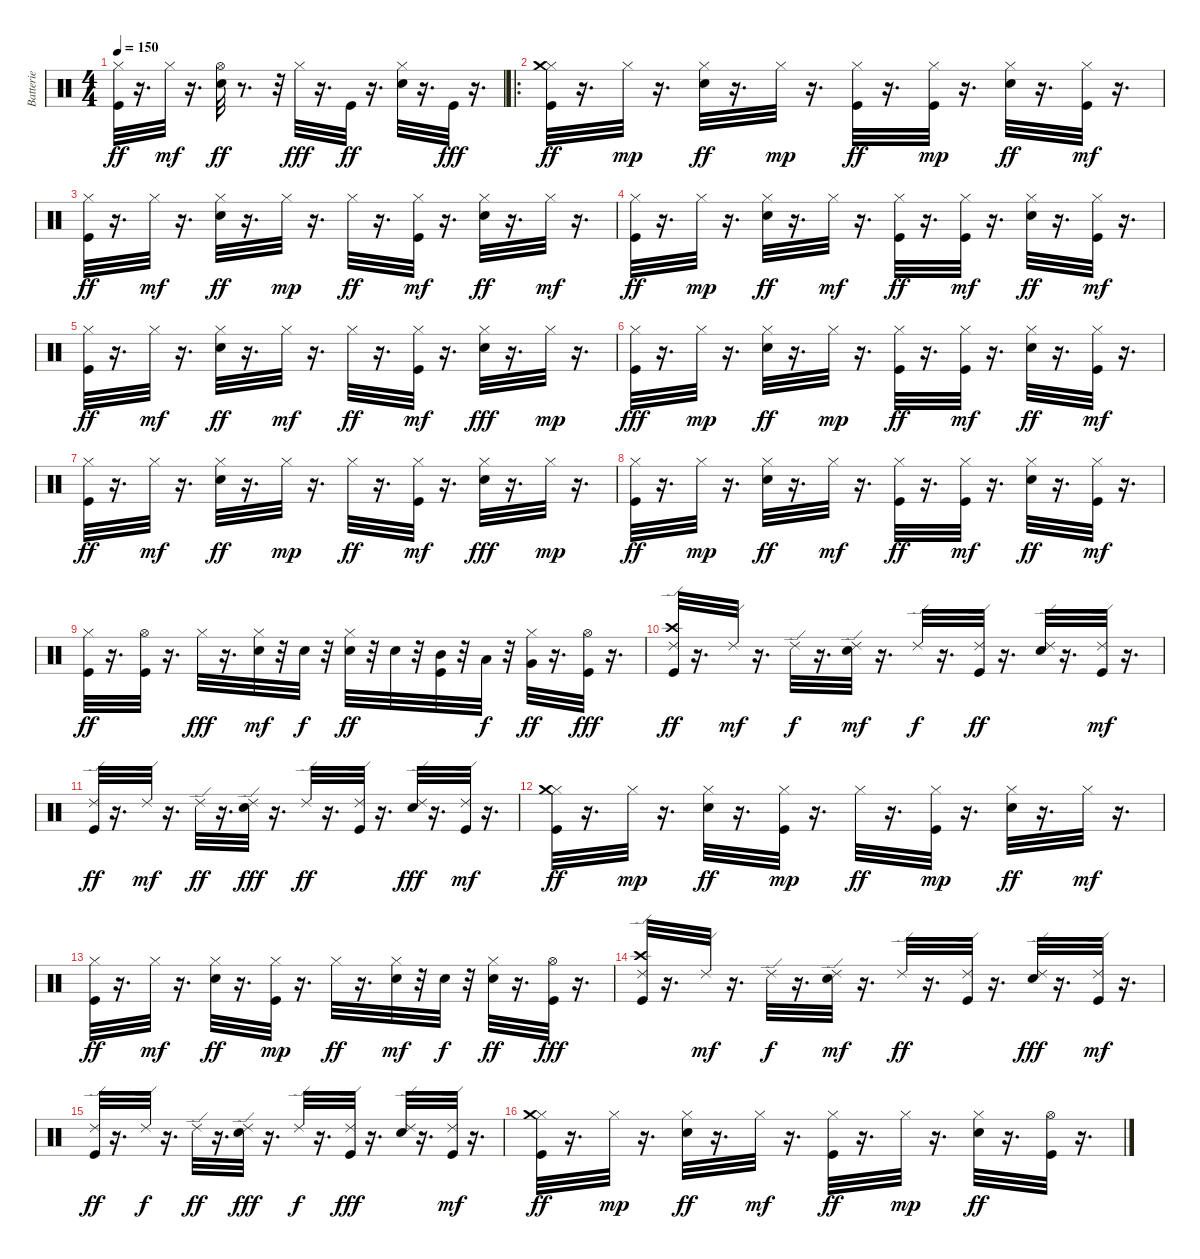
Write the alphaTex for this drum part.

\track ("Batterie" "Batterie") {instrument percussion}
\staff {score}
\articulation defaults
\ts (4 4)
\tempo 150
\clef neutral
\ks c
("Kick (hit)" "Hi-Hat (closed)").32{dy ff} r.16{d} "Hi-Hat (closed)".32{dy mf} r.16{d} ("Snare (hit) 2" "Hi-Hat (open)").32{dy ff} r.8{d} r.32 "Hi-Hat (closed)".32{dy fff} r.16{d} "Kick (hit)".32{dy ff} r.16{d} ("Snare (hit) 2" "Hi-Hat (closed)").32 r.16{d} "Kick (hit)".32{dy fff} r.16{d} |
\ro
("Kick (hit)" "Hi-Hat (closed)" "Crash medium (hit)").32{dy ff} r.16{d} "Hi-Hat (closed)".32{dy mp} r.16{d} ("Snare (hit) 2" "Hi-Hat (closed)").32{dy ff} r.16{d} "Hi-Hat (closed)".32{dy mp} r.16{d} ("Kick (hit)" "Hi-Hat (closed)").32{dy ff} r.16{d} ("Kick (hit)" "Hi-Hat (closed)").32{dy mp} r.16{d} ("Snare (hit) 2" "Hi-Hat (closed)").32{dy ff} r.16{d} ("Kick (hit)" "Hi-Hat (closed)").32{dy mf} r.16{d} |
("Kick (hit)" "Hi-Hat (closed)").32{dy ff} r.16{d} "Hi-Hat (closed)".32{dy mf} r.16{d} ("Snare (hit) 2" "Hi-Hat (closed)").32{dy ff} r.16{d} "Hi-Hat (closed)".32{dy mp} r.16{d} "Hi-Hat (closed)".32{dy ff} r.16{d} ("Kick (hit)" "Hi-Hat (closed)").32{dy mf} r.16{d} ("Snare (hit) 2" "Hi-Hat (closed)").32{dy ff} r.16{d} "Hi-Hat (closed)".32{dy mf} r.16{d} |
("Kick (hit)" "Hi-Hat (closed)").32{dy ff} r.16{d} "Hi-Hat (closed)".32{dy mp} r.16{d} ("Snare (hit) 2" "Hi-Hat (closed)").32{dy ff} r.16{d} "Hi-Hat (closed)".32{dy mf} r.16{d} ("Kick (hit)" "Hi-Hat (closed)").32{dy ff} r.16{d} ("Kick (hit)" "Hi-Hat (closed)").32{dy mf} r.16{d} ("Snare (hit) 2" "Hi-Hat (closed)").32{dy ff} r.16{d} ("Kick (hit)" "Hi-Hat (closed)").32{dy mf} r.16{d} |
("Kick (hit)" "Hi-Hat (closed)").32{dy ff} r.16{d} "Hi-Hat (closed)".32{dy mf} r.16{d} ("Snare (hit) 2" "Hi-Hat (closed)").32{dy ff} r.16{d} "Hi-Hat (closed)".32{dy mf} r.16{d} "Hi-Hat (closed)".32{dy ff} r.16{d} ("Kick (hit)" "Hi-Hat (closed)").32{dy mf} r.16{d} ("Snare (hit) 2" "Hi-Hat (closed)").32{dy fff} r.16{d} "Hi-Hat (closed)".32{dy mp} r.16{d} |
("Kick (hit)" "Hi-Hat (closed)").32{dy fff} r.16{d} "Hi-Hat (closed)".32{dy mp} r.16{d} ("Snare (hit) 2" "Hi-Hat (closed)").32{dy ff} r.16{d} "Hi-Hat (closed)".32{dy mp} r.16{d} ("Kick (hit)" "Hi-Hat (closed)").32{dy ff} r.16{d} ("Kick (hit)" "Hi-Hat (closed)").32{dy mf} r.16{d} ("Snare (hit) 2" "Hi-Hat (closed)").32{dy ff} r.16{d} ("Kick (hit)" "Hi-Hat (closed)").32{dy mf} r.16{d} |
("Kick (hit)" "Hi-Hat (closed)").32{dy ff} r.16{d} "Hi-Hat (closed)".32{dy mf} r.16{d} ("Snare (hit) 2" "Hi-Hat (closed)").32{dy ff} r.16{d} "Hi-Hat (closed)".32{dy mp} r.16{d} "Hi-Hat (closed)".32{dy ff} r.16{d} ("Kick (hit)" "Hi-Hat (closed)").32{dy mf} r.16{d} ("Snare (hit) 2" "Hi-Hat (closed)").32{dy fff} r.16{d} "Hi-Hat (closed)".32{dy mp} r.16{d} |
("Kick (hit)" "Hi-Hat (closed)").32{dy ff} r.16{d} "Hi-Hat (closed)".32{dy mp} r.16{d} ("Snare (hit) 2" "Hi-Hat (closed)").32{dy ff} r.16{d} "Hi-Hat (closed)".32{dy mf} r.16{d} ("Kick (hit)" "Hi-Hat (closed)").32{dy ff} r.16{d} ("Kick (hit)" "Hi-Hat (closed)").32{dy mf} r.16{d} ("Snare (hit) 2" "Hi-Hat (closed)").32{dy ff} r.16{d} ("Kick (hit)" "Hi-Hat (closed)").32{dy mf} r.16{d} |
("Kick (hit)" "Hi-Hat (closed)").32{dy ff} r.16{d} ("Kick (hit)" "Hi-Hat (open)").32 r.16{d} "Hi-Hat (closed)".32{dy fff} r.16{d} ("Snare (hit) 2" "Hi-Hat (closed)").32{dy mf} r.32 "Snare (hit) 2".32{dy f} r.32 ("Snare (hit) 2" "Hi-Hat (closed)").32{dy ff} r.32 "Snare (hit) 2".32 r.32 ("Kick (hit)" "Mid Tom (hit)").32 r.32 "Low Tom (hit)".32{dy f} r.32 ("Hi-Hat (closed)" "Very Low Tom (hit)").32{dy ff} r.16{d} ("Kick (hit)" "Hi-Hat (open)").32{dy fff} r.16{d} |
("Kick (hit)" "Crash high (hit)" "Ride (edge) 2").32{dy ff} r.16{d} "Ride (edge) 2".32{dy mf} r.16{d} "Ride (edge) 2".32{dy f} r.16{d} ("Snare (hit) 2" "Ride (edge) 2").32{dy mf} r.16{d} "Ride (edge) 2".32{dy f} r.16{d} ("Kick (hit)" "Ride (edge) 2").32{dy ff} r.16{d} ("Snare (hit) 2" "Ride (edge) 2").32 r.16{d} ("Kick (hit)" "Ride (edge) 2").32{dy mf} r.16{d} |
("Kick (hit)" "Ride (edge) 2").32{dy ff} r.16{d} "Ride (edge) 2".32{dy mf} r.16{d} "Ride (edge) 2".32{dy ff} r.16{d} ("Snare (hit) 2" "Ride (edge) 2").32{dy fff} r.16{d} "Ride (edge) 2".32{dy ff} r.16{d} ("Kick (hit)" "Ride (edge) 2").32 r.16{d} ("Snare (hit) 2" "Ride (edge) 2").32{dy fff} r.16{d} ("Kick (hit)" "Ride (edge) 2").32{dy mf} r.16{d} |
("Kick (hit)" "Hi-Hat (closed)" "Crash medium (hit)").32{dy ff} r.16{d} "Hi-Hat (closed)".32{dy mp} r.16{d} ("Snare (hit) 2" "Hi-Hat (closed)").32{dy ff} r.16{d} ("Kick (hit)" "Hi-Hat (closed)").32{dy mp} r.16{d} "Hi-Hat (closed)".32{dy ff} r.16{d} ("Kick (hit)" "Hi-Hat (closed)").32{dy mp} r.16{d} ("Snare (hit) 2" "Hi-Hat (closed)").32{dy ff} r.16{d} "Hi-Hat (closed)".32{dy mf} r.16{d} |
("Kick (hit)" "Hi-Hat (closed)").32{dy ff} r.16{d} "Hi-Hat (closed)".32{dy mf} r.16{d} ("Snare (hit) 2" "Hi-Hat (closed)").32{dy ff} r.16{d} ("Kick (hit)" "Hi-Hat (closed)").32{dy mp} r.16{d} "Hi-Hat (closed)".32{dy ff} r.16{d} ("Snare (hit) 2" "Hi-Hat (closed)").32{dy mf} r.32 "Snare (hit) 2".32{dy f} r.32 ("Snare (hit) 2" "Hi-Hat (closed)").32{dy ff} r.16{d} ("Kick (hit)" "Hi-Hat (open)").32{dy fff} r.16{d} |
("Kick (hit)" "Crash high (hit)" "Ride (edge) 2").32 r.16{d} "Ride (edge) 2".32{dy mf} r.16{d} "Ride (edge) 2".32{dy f} r.16{d} ("Snare (hit) 2" "Ride (edge) 2").32{dy mf} r.16{d} "Ride (edge) 2".32{dy ff} r.16{d} ("Kick (hit)" "Ride (edge) 2").32 r.16{d} ("Snare (hit) 2" "Ride (edge) 2").32{dy fff} r.16{d} ("Kick (hit)" "Ride (edge) 2").32{dy mf} r.16{d} |
("Kick (hit)" "Ride (edge) 2").32{dy ff} r.16{d} "Ride (edge) 2".32{dy f} r.16{d} "Ride (edge) 2".32{dy ff} r.16{d} ("Snare (hit) 2" "Ride (edge) 2").32{dy fff} r.16{d} "Ride (edge) 2".32{dy f} r.16{d} ("Kick (hit)" "Ride (edge) 2").32{dy fff} r.16{d} ("Snare (hit) 2" "Ride (edge) 2").32 r.16{d} ("Kick (hit)" "Ride (edge) 2").32{dy mf} r.16{d} |
("Kick (hit)" "Hi-Hat (closed)" "Crash medium (hit)").32{dy ff} r.16{d} "Hi-Hat (closed)".32{dy mp} r.16{d} ("Snare (hit) 2" "Hi-Hat (closed)").32{dy ff} r.16{d} "Hi-Hat (closed)".32{dy mf} r.16{d} ("Kick (hit)" "Hi-Hat (closed)").32{dy ff} r.16{d} "Hi-Hat (closed)".32{dy mp} r.16{d} ("Snare (hit) 2" "Hi-Hat (closed)").32{dy ff} r.16{d} ("Kick (hit)" "Hi-Hat (open)").32 r.16{d}
